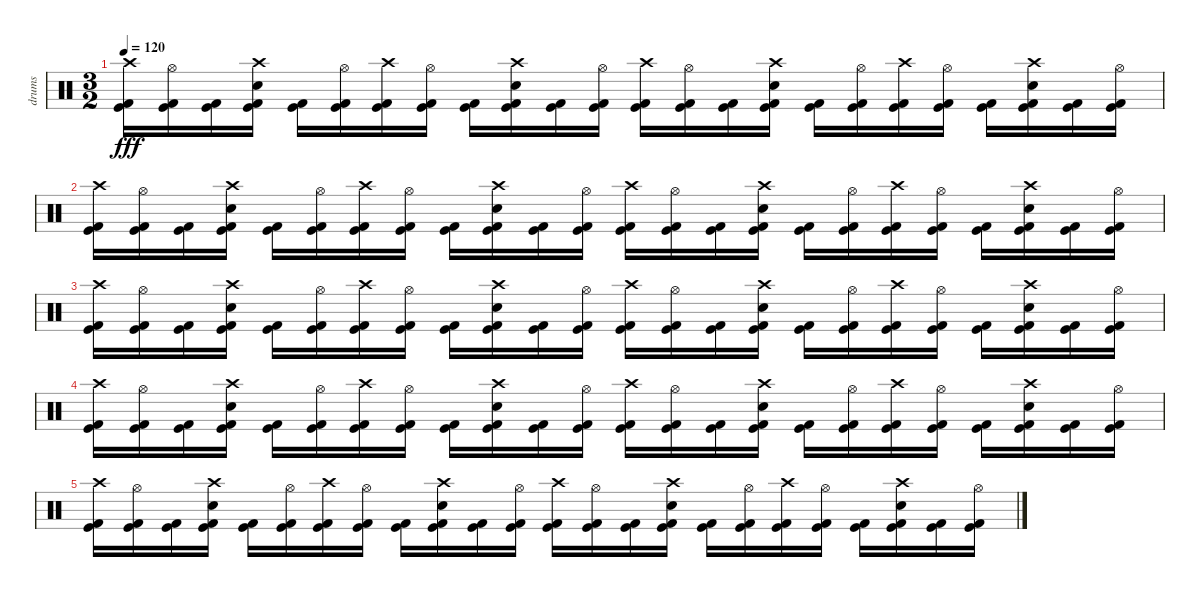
\track ("drums" "drums") {instrument percussion}
\staff {score}
\articulation defaults
\ts (3 2)
\tempo 120
\clef neutral
\ks c
("Crash high (hit)" "Kick (hit)" "Kick (hit) 2").16{dy fff} ("Hi-Hat (open)" "Kick (hit)" "Kick (hit) 2").16 ("Kick (hit)" "Kick (hit) 2").16 ("Crash high (hit)" "Electric Snare (hit)" "Kick (hit)" "Kick (hit) 2").16 ("Kick (hit)" "Kick (hit) 2").16 ("Hi-Hat (open)" "Kick (hit)" "Kick (hit) 2").16 ("Crash high (hit)" "Kick (hit)" "Kick (hit) 2").16 ("Hi-Hat (open)" "Kick (hit)" "Kick (hit) 2").16 ("Kick (hit)" "Kick (hit) 2").16 ("Crash high (hit)" "Electric Snare (hit)" "Kick (hit)" "Kick (hit) 2").16 ("Kick (hit)" "Kick (hit) 2").16 ("Hi-Hat (open)" "Kick (hit)" "Kick (hit) 2").16 ("Crash high (hit)" "Kick (hit)" "Kick (hit) 2").16 ("Hi-Hat (open)" "Kick (hit)" "Kick (hit) 2").16 ("Kick (hit)" "Kick (hit) 2").16 ("Crash high (hit)" "Electric Snare (hit)" "Kick (hit)" "Kick (hit) 2").16 ("Kick (hit)" "Kick (hit) 2").16 ("Hi-Hat (open)" "Kick (hit)" "Kick (hit) 2").16 ("Crash high (hit)" "Kick (hit)" "Kick (hit) 2").16 ("Hi-Hat (open)" "Kick (hit)" "Kick (hit) 2").16 ("Kick (hit)" "Kick (hit) 2").16 ("Crash high (hit)" "Electric Snare (hit)" "Kick (hit)" "Kick (hit) 2").16 ("Kick (hit)" "Kick (hit) 2").16 ("Hi-Hat (open)" "Kick (hit)" "Kick (hit) 2").16 |
("Crash high (hit)" "Kick (hit)" "Kick (hit) 2").16 ("Hi-Hat (open)" "Kick (hit)" "Kick (hit) 2").16 ("Kick (hit)" "Kick (hit) 2").16 ("Crash high (hit)" "Electric Snare (hit)" "Kick (hit)" "Kick (hit) 2").16 ("Kick (hit)" "Kick (hit) 2").16 ("Hi-Hat (open)" "Kick (hit)" "Kick (hit) 2").16 ("Crash high (hit)" "Kick (hit)" "Kick (hit) 2").16 ("Hi-Hat (open)" "Kick (hit)" "Kick (hit) 2").16 ("Kick (hit)" "Kick (hit) 2").16 ("Crash high (hit)" "Electric Snare (hit)" "Kick (hit)" "Kick (hit) 2").16 ("Kick (hit)" "Kick (hit) 2").16 ("Hi-Hat (open)" "Kick (hit)" "Kick (hit) 2").16 ("Crash high (hit)" "Kick (hit)" "Kick (hit) 2").16 ("Hi-Hat (open)" "Kick (hit)" "Kick (hit) 2").16 ("Kick (hit)" "Kick (hit) 2").16 ("Crash high (hit)" "Electric Snare (hit)" "Kick (hit)" "Kick (hit) 2").16 ("Kick (hit)" "Kick (hit) 2").16 ("Hi-Hat (open)" "Kick (hit)" "Kick (hit) 2").16 ("Crash high (hit)" "Kick (hit)" "Kick (hit) 2").16 ("Hi-Hat (open)" "Kick (hit)" "Kick (hit) 2").16 ("Kick (hit)" "Kick (hit) 2").16 ("Crash high (hit)" "Electric Snare (hit)" "Kick (hit)" "Kick (hit) 2").16 ("Kick (hit)" "Kick (hit) 2").16 ("Hi-Hat (open)" "Kick (hit)" "Kick (hit) 2").16 |
("Crash high (hit)" "Kick (hit)" "Kick (hit) 2").16 ("Hi-Hat (open)" "Kick (hit)" "Kick (hit) 2").16 ("Kick (hit)" "Kick (hit) 2").16 ("Crash high (hit)" "Electric Snare (hit)" "Kick (hit)" "Kick (hit) 2").16 ("Kick (hit)" "Kick (hit) 2").16 ("Hi-Hat (open)" "Kick (hit)" "Kick (hit) 2").16 ("Crash high (hit)" "Kick (hit)" "Kick (hit) 2").16 ("Hi-Hat (open)" "Kick (hit)" "Kick (hit) 2").16 ("Kick (hit)" "Kick (hit) 2").16 ("Crash high (hit)" "Electric Snare (hit)" "Kick (hit)" "Kick (hit) 2").16 ("Kick (hit)" "Kick (hit) 2").16 ("Hi-Hat (open)" "Kick (hit)" "Kick (hit) 2").16 ("Crash high (hit)" "Kick (hit)" "Kick (hit) 2").16 ("Hi-Hat (open)" "Kick (hit)" "Kick (hit) 2").16 ("Kick (hit)" "Kick (hit) 2").16 ("Crash high (hit)" "Electric Snare (hit)" "Kick (hit)" "Kick (hit) 2").16 ("Kick (hit)" "Kick (hit) 2").16 ("Hi-Hat (open)" "Kick (hit)" "Kick (hit) 2").16 ("Crash high (hit)" "Kick (hit)" "Kick (hit) 2").16 ("Hi-Hat (open)" "Kick (hit)" "Kick (hit) 2").16 ("Kick (hit)" "Kick (hit) 2").16 ("Crash high (hit)" "Electric Snare (hit)" "Kick (hit)" "Kick (hit) 2").16 ("Kick (hit)" "Kick (hit) 2").16 ("Hi-Hat (open)" "Kick (hit)" "Kick (hit) 2").16 |
("Crash high (hit)" "Kick (hit)" "Kick (hit) 2").16 ("Hi-Hat (open)" "Kick (hit)" "Kick (hit) 2").16 ("Kick (hit)" "Kick (hit) 2").16 ("Crash high (hit)" "Electric Snare (hit)" "Kick (hit)" "Kick (hit) 2").16 ("Kick (hit)" "Kick (hit) 2").16 ("Hi-Hat (open)" "Kick (hit)" "Kick (hit) 2").16 ("Crash high (hit)" "Kick (hit)" "Kick (hit) 2").16 ("Hi-Hat (open)" "Kick (hit)" "Kick (hit) 2").16 ("Kick (hit)" "Kick (hit) 2").16 ("Crash high (hit)" "Electric Snare (hit)" "Kick (hit)" "Kick (hit) 2").16 ("Kick (hit)" "Kick (hit) 2").16 ("Hi-Hat (open)" "Kick (hit)" "Kick (hit) 2").16 ("Crash high (hit)" "Kick (hit)" "Kick (hit) 2").16 ("Hi-Hat (open)" "Kick (hit)" "Kick (hit) 2").16 ("Kick (hit)" "Kick (hit) 2").16 ("Crash high (hit)" "Electric Snare (hit)" "Kick (hit)" "Kick (hit) 2").16 ("Kick (hit)" "Kick (hit) 2").16 ("Hi-Hat (open)" "Kick (hit)" "Kick (hit) 2").16 ("Crash high (hit)" "Kick (hit)" "Kick (hit) 2").16 ("Hi-Hat (open)" "Kick (hit)" "Kick (hit) 2").16 ("Kick (hit)" "Kick (hit) 2").16 ("Crash high (hit)" "Electric Snare (hit)" "Kick (hit)" "Kick (hit) 2").16 ("Kick (hit)" "Kick (hit) 2").16 ("Hi-Hat (open)" "Kick (hit)" "Kick (hit) 2").16 |
("Crash high (hit)" "Kick (hit)" "Kick (hit) 2").16 ("Hi-Hat (open)" "Kick (hit)" "Kick (hit) 2").16 ("Kick (hit)" "Kick (hit) 2").16 ("Crash high (hit)" "Electric Snare (hit)" "Kick (hit)" "Kick (hit) 2").16 ("Kick (hit)" "Kick (hit) 2").16 ("Hi-Hat (open)" "Kick (hit)" "Kick (hit) 2").16 ("Crash high (hit)" "Kick (hit)" "Kick (hit) 2").16 ("Hi-Hat (open)" "Kick (hit)" "Kick (hit) 2").16 ("Kick (hit)" "Kick (hit) 2").16 ("Crash high (hit)" "Electric Snare (hit)" "Kick (hit)" "Kick (hit) 2").16 ("Kick (hit)" "Kick (hit) 2").16 ("Hi-Hat (open)" "Kick (hit)" "Kick (hit) 2").16 ("Crash high (hit)" "Kick (hit)" "Kick (hit) 2").16 ("Hi-Hat (open)" "Kick (hit)" "Kick (hit) 2").16 ("Kick (hit)" "Kick (hit) 2").16 ("Crash high (hit)" "Electric Snare (hit)" "Kick (hit)" "Kick (hit) 2").16 ("Kick (hit)" "Kick (hit) 2").16 ("Hi-Hat (open)" "Kick (hit)" "Kick (hit) 2").16 ("Crash high (hit)" "Kick (hit)" "Kick (hit) 2").16 ("Hi-Hat (open)" "Kick (hit)" "Kick (hit) 2").16 ("Kick (hit)" "Kick (hit) 2").16 ("Crash high (hit)" "Electric Snare (hit)" "Kick (hit)" "Kick (hit) 2").16 ("Kick (hit)" "Kick (hit) 2").16 ("Hi-Hat (open)" "Kick (hit)" "Kick (hit) 2").16
